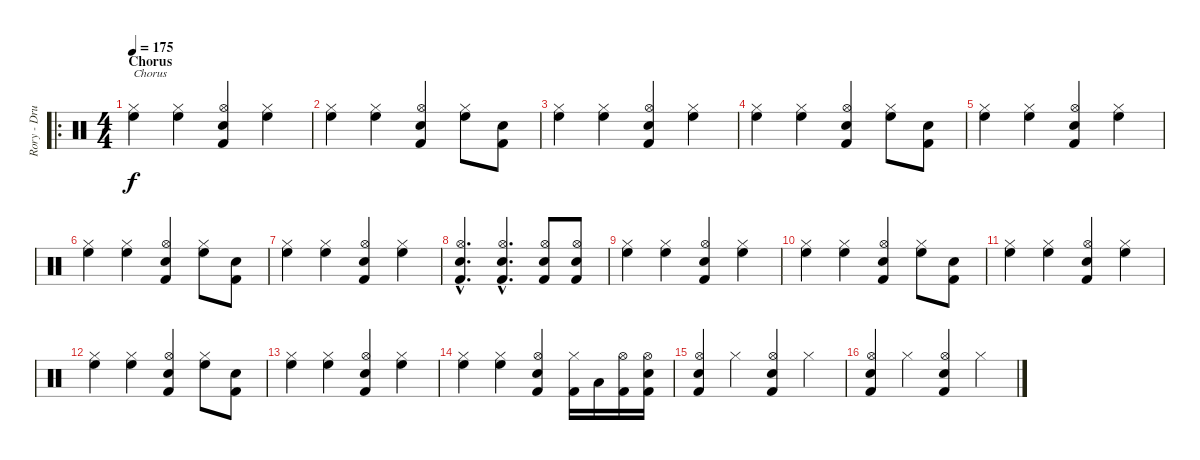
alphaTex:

\track ("Rory - Drums" "Rory - Dru") {instrument percussion}
\staff {score}
\articulation defaults
\ro
\ts (4 4)
\section ("" "Chorus")
\tempo 175
\clef neutral
\ks c
("Hi-Hat (closed)" "High Floor Tom (hit)").4{txt "Chorus" dy f} ("Hi-Hat (closed)" "High Floor Tom (hit)").4 ("Kick (hit) 2" "Hi-Hat (open)" "Snare (hit) 2").4 ("Hi-Hat (closed)" "High Floor Tom (hit)").4 |
("Hi-Hat (closed)" "High Floor Tom (hit)").4 ("Hi-Hat (closed)" "High Floor Tom (hit)").4 ("Kick (hit) 2" "Hi-Hat (open)" "Snare (hit) 2").4 ("Hi-Hat (closed)" "High Floor Tom (hit)").8 ("Kick (hit) 2" "Snare (hit) 2").8 |
("Hi-Hat (closed)" "High Floor Tom (hit)").4 ("Hi-Hat (closed)" "High Floor Tom (hit)").4 ("Kick (hit) 2" "Hi-Hat (open)" "Snare (hit) 2").4 ("Hi-Hat (closed)" "High Floor Tom (hit)").4 |
("Hi-Hat (closed)" "High Floor Tom (hit)").4 ("Hi-Hat (closed)" "High Floor Tom (hit)").4 ("Kick (hit) 2" "Hi-Hat (open)" "Snare (hit) 2").4 ("Hi-Hat (closed)" "High Floor Tom (hit)").8 ("Kick (hit) 2" "Snare (hit) 2").8 |
("Hi-Hat (closed)" "High Floor Tom (hit)").4 ("Hi-Hat (closed)" "High Floor Tom (hit)").4 ("Kick (hit) 2" "Hi-Hat (open)" "Snare (hit) 2").4 ("Hi-Hat (closed)" "High Floor Tom (hit)").4 |
("Hi-Hat (closed)" "High Floor Tom (hit)").4 ("Hi-Hat (closed)" "High Floor Tom (hit)").4 ("Kick (hit) 2" "Hi-Hat (open)" "Snare (hit) 2").4 ("Hi-Hat (closed)" "High Floor Tom (hit)").8 ("Kick (hit) 2" "Snare (hit) 2").8 |
("Hi-Hat (closed)" "High Floor Tom (hit)").4 ("Hi-Hat (closed)" "High Floor Tom (hit)").4 ("Kick (hit) 2" "Hi-Hat (open)" "Snare (hit) 2").4 ("Hi-Hat (closed)" "High Floor Tom (hit)").4 |
("Kick (hit) 2"{hac} "Hi-Hat (open)"{hac} "Snare (hit) 2"{hac}).4{d} ("Kick (hit) 2"{hac} "Hi-Hat (open)"{hac} "Snare (hit) 2"{hac}).4{d} ("Kick (hit) 2" "Hi-Hat (open)" "Snare (hit) 2").8 ("Kick (hit) 2" "Hi-Hat (open)" "Snare (hit) 2").8 |
("Hi-Hat (closed)" "High Floor Tom (hit)").4 ("Hi-Hat (closed)" "High Floor Tom (hit)").4 ("Kick (hit) 2" "Hi-Hat (open)" "Snare (hit) 2").4 ("Hi-Hat (closed)" "High Floor Tom (hit)").4 |
("Hi-Hat (closed)" "High Floor Tom (hit)").4 ("Hi-Hat (closed)" "High Floor Tom (hit)").4 ("Kick (hit) 2" "Hi-Hat (open)" "Snare (hit) 2").4 ("Hi-Hat (closed)" "High Floor Tom (hit)").8 ("Kick (hit) 2" "Snare (hit) 2").8 |
("Hi-Hat (closed)" "High Floor Tom (hit)").4 ("Hi-Hat (closed)" "High Floor Tom (hit)").4 ("Kick (hit) 2" "Hi-Hat (open)" "Snare (hit) 2").4 ("Hi-Hat (closed)" "High Floor Tom (hit)").4 |
("Hi-Hat (closed)" "High Floor Tom (hit)").4 ("Hi-Hat (closed)" "High Floor Tom (hit)").4 ("Kick (hit) 2" "Hi-Hat (open)" "Snare (hit) 2").4 ("Hi-Hat (closed)" "High Floor Tom (hit)").8 ("Kick (hit) 2" "Snare (hit) 2").8 |
("Hi-Hat (closed)" "High Floor Tom (hit)").4 ("Hi-Hat (closed)" "High Floor Tom (hit)").4 ("Kick (hit) 2" "Hi-Hat (open)" "Snare (hit) 2").4 ("Hi-Hat (closed)" "High Floor Tom (hit)").4 |
("Hi-Hat (closed)" "High Floor Tom (hit)").4 ("Hi-Hat (closed)" "High Floor Tom (hit)").4 ("Kick (hit) 2" "Hi-Hat (open)" "Snare (hit) 2").4 ("Hi-Hat (closed)" "Kick (hit) 2").16 "Low Tom (hit)".16 ("Kick (hit) 2" "Hi-Hat (open)").16 ("Kick (hit) 2" "Hi-Hat (open)" "Snare (hit) 2").16 |
("Kick (hit) 2" "Hi-Hat (open)" "Snare (hit) 2").4 "Hi-Hat (closed)".4 ("Kick (hit) 2" "Hi-Hat (open)" "Snare (hit) 2").4 "Hi-Hat (closed)".4 |
("Kick (hit) 2" "Hi-Hat (open)" "Snare (hit) 2").4 "Hi-Hat (closed)".4 ("Kick (hit) 2" "Hi-Hat (open)" "Snare (hit) 2").4 "Hi-Hat (closed)".4
